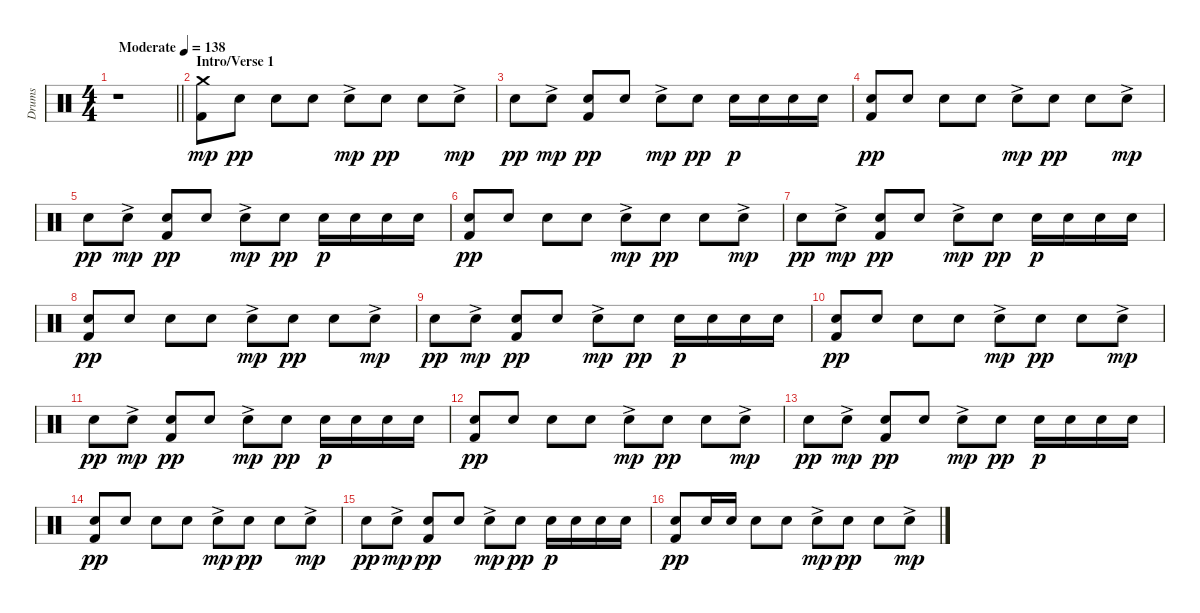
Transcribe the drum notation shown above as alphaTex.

\track ("Drums" "Drums") {instrument percussion}
\staff {score}
\articulation defaults
\ts (4 4)
\tempo (138 "Moderate")
\clef neutral
\barLineRight lightlight
\ks c
r.1{dy mp} |
\section ("" "Intro/Verse 1")
("Crash medium (hit)" "Kick (hit) 2").8 "Electric Snare (hit)".8{dy pp} "Electric Snare (hit)".8 "Electric Snare (hit)".8 "Electric Snare (hit)"{ac}.8{dy mp} "Electric Snare (hit)".8{dy pp} "Electric Snare (hit)".8 "Electric Snare (hit)"{ac}.8{dy mp} |
"Electric Snare (hit)".8{dy pp} "Electric Snare (hit)"{ac}.8{dy mp} ("Electric Snare (hit)" "Kick (hit) 2").8{dy pp} "Electric Snare (hit)".8 "Electric Snare (hit)"{ac}.8{dy mp} "Electric Snare (hit)".8{dy pp} "Electric Snare (hit)".16{dy p} "Electric Snare (hit)".16 "Electric Snare (hit)".16 "Electric Snare (hit)".16 |
("Electric Snare (hit)" "Kick (hit) 2").8{dy pp} "Electric Snare (hit)".8 "Electric Snare (hit)".8 "Electric Snare (hit)".8 "Electric Snare (hit)"{ac}.8{dy mp} "Electric Snare (hit)".8{dy pp} "Electric Snare (hit)".8 "Electric Snare (hit)"{ac}.8{dy mp} |
"Electric Snare (hit)".8{dy pp} "Electric Snare (hit)"{ac}.8{dy mp} ("Electric Snare (hit)" "Kick (hit) 2").8{dy pp} "Electric Snare (hit)".8 "Electric Snare (hit)"{ac}.8{dy mp} "Electric Snare (hit)".8{dy pp} "Electric Snare (hit)".16{dy p} "Electric Snare (hit)".16 "Electric Snare (hit)".16 "Electric Snare (hit)".16 |
("Electric Snare (hit)" "Kick (hit) 2").8{dy pp} "Electric Snare (hit)".8 "Electric Snare (hit)".8 "Electric Snare (hit)".8 "Electric Snare (hit)"{ac}.8{dy mp} "Electric Snare (hit)".8{dy pp} "Electric Snare (hit)".8 "Electric Snare (hit)"{ac}.8{dy mp} |
"Electric Snare (hit)".8{dy pp} "Electric Snare (hit)"{ac}.8{dy mp} ("Electric Snare (hit)" "Kick (hit) 2").8{dy pp} "Electric Snare (hit)".8 "Electric Snare (hit)"{ac}.8{dy mp} "Electric Snare (hit)".8{dy pp} "Electric Snare (hit)".16{dy p} "Electric Snare (hit)".16 "Electric Snare (hit)".16 "Electric Snare (hit)".16 |
("Electric Snare (hit)" "Kick (hit) 2").8{dy pp} "Electric Snare (hit)".8 "Electric Snare (hit)".8 "Electric Snare (hit)".8 "Electric Snare (hit)"{ac}.8{dy mp} "Electric Snare (hit)".8{dy pp} "Electric Snare (hit)".8 "Electric Snare (hit)"{ac}.8{dy mp} |
"Electric Snare (hit)".8{dy pp} "Electric Snare (hit)"{ac}.8{dy mp} ("Electric Snare (hit)" "Kick (hit) 2").8{dy pp} "Electric Snare (hit)".8 "Electric Snare (hit)"{ac}.8{dy mp} "Electric Snare (hit)".8{dy pp} "Electric Snare (hit)".16{dy p} "Electric Snare (hit)".16 "Electric Snare (hit)".16 "Electric Snare (hit)".16 |
("Electric Snare (hit)" "Kick (hit) 2").8{dy pp} "Electric Snare (hit)".8 "Electric Snare (hit)".8 "Electric Snare (hit)".8 "Electric Snare (hit)"{ac}.8{dy mp} "Electric Snare (hit)".8{dy pp} "Electric Snare (hit)".8 "Electric Snare (hit)"{ac}.8{dy mp} |
"Electric Snare (hit)".8{dy pp} "Electric Snare (hit)"{ac}.8{dy mp} ("Electric Snare (hit)" "Kick (hit) 2").8{dy pp} "Electric Snare (hit)".8 "Electric Snare (hit)"{ac}.8{dy mp} "Electric Snare (hit)".8{dy pp} "Electric Snare (hit)".16{dy p} "Electric Snare (hit)".16 "Electric Snare (hit)".16 "Electric Snare (hit)".16 |
("Electric Snare (hit)" "Kick (hit) 2").8{dy pp} "Electric Snare (hit)".8 "Electric Snare (hit)".8 "Electric Snare (hit)".8 "Electric Snare (hit)"{ac}.8{dy mp} "Electric Snare (hit)".8{dy pp} "Electric Snare (hit)".8 "Electric Snare (hit)"{ac}.8{dy mp} |
"Electric Snare (hit)".8{dy pp} "Electric Snare (hit)"{ac}.8{dy mp} ("Electric Snare (hit)" "Kick (hit) 2").8{dy pp} "Electric Snare (hit)".8 "Electric Snare (hit)"{ac}.8{dy mp} "Electric Snare (hit)".8{dy pp} "Electric Snare (hit)".16{dy p} "Electric Snare (hit)".16 "Electric Snare (hit)".16 "Electric Snare (hit)".16 |
("Electric Snare (hit)" "Kick (hit) 2").8{dy pp} "Electric Snare (hit)".8 "Electric Snare (hit)".8 "Electric Snare (hit)".8 "Electric Snare (hit)"{ac}.8{dy mp} "Electric Snare (hit)".8{dy pp} "Electric Snare (hit)".8 "Electric Snare (hit)"{ac}.8{dy mp} |
"Electric Snare (hit)".8{dy pp} "Electric Snare (hit)"{ac}.8{dy mp} ("Electric Snare (hit)" "Kick (hit) 2").8{dy pp} "Electric Snare (hit)".8 "Electric Snare (hit)"{ac}.8{dy mp} "Electric Snare (hit)".8{dy pp} "Electric Snare (hit)".16{dy p} "Electric Snare (hit)".16 "Electric Snare (hit)".16 "Electric Snare (hit)".16 |
("Electric Snare (hit)" "Kick (hit) 2").8{dy pp} "Electric Snare (hit)".16 "Electric Snare (hit)".16 "Electric Snare (hit)".8 "Electric Snare (hit)".8 "Electric Snare (hit)"{ac}.8{dy mp} "Electric Snare (hit)".8{dy pp} "Electric Snare (hit)".8 "Electric Snare (hit)"{ac}.8{dy mp}
